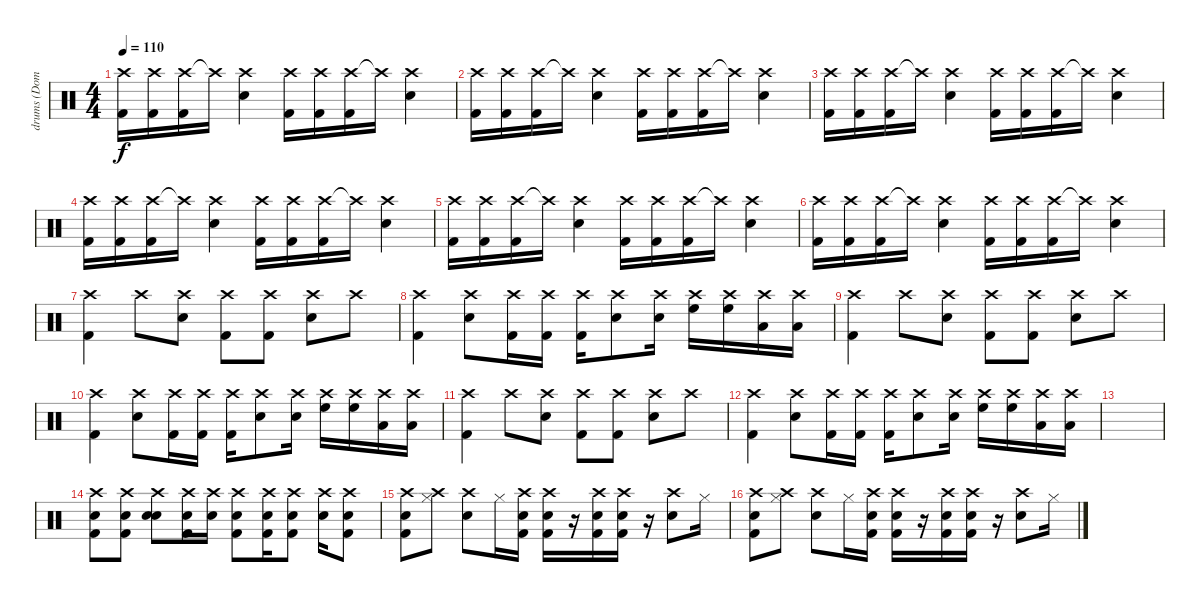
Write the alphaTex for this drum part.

\track ("drums (Dominic howard)" "drums (Dom") {instrument percussion}
\staff {score}
\articulation defaults
\ts (4 4)
\tempo 110
\clef neutral
\ks c
("Crash high (hit)" "Kick (hit) 2").16{dy f} ("Crash high (hit)" "Kick (hit) 2").16 ("Crash high (hit)" "Kick (hit) 2").16 "Crash high (hit)"{t}.16 ("Crash high (hit)" "Electric Snare (hit)").4 ("Crash high (hit)" "Kick (hit) 2").16 ("Crash high (hit)" "Kick (hit) 2").16 ("Crash high (hit)" "Kick (hit) 2").16 "Crash high (hit)"{t}.16 ("Crash high (hit)" "Electric Snare (hit)").4 |
("Crash high (hit)" "Kick (hit) 2").16 ("Crash high (hit)" "Kick (hit) 2").16 ("Crash high (hit)" "Kick (hit) 2").16 "Crash high (hit)"{t}.16 ("Crash high (hit)" "Electric Snare (hit)").4 ("Crash high (hit)" "Kick (hit) 2").16 ("Crash high (hit)" "Kick (hit) 2").16 ("Crash high (hit)" "Kick (hit) 2").16 "Crash high (hit)"{t}.16 ("Crash high (hit)" "Electric Snare (hit)").4 |
("Crash high (hit)" "Kick (hit) 2").16 ("Crash high (hit)" "Kick (hit) 2").16 ("Crash high (hit)" "Kick (hit) 2").16 "Crash high (hit)"{t}.16 ("Crash high (hit)" "Electric Snare (hit)").4 ("Crash high (hit)" "Kick (hit) 2").16 ("Crash high (hit)" "Kick (hit) 2").16 ("Crash high (hit)" "Kick (hit) 2").16 "Crash high (hit)"{t}.16 ("Crash high (hit)" "Electric Snare (hit)").4 |
("Crash high (hit)" "Kick (hit) 2").16 ("Crash high (hit)" "Kick (hit) 2").16 ("Crash high (hit)" "Kick (hit) 2").16 "Crash high (hit)"{t}.16 ("Crash high (hit)" "Electric Snare (hit)").4 ("Crash high (hit)" "Kick (hit) 2").16 ("Crash high (hit)" "Kick (hit) 2").16 ("Crash high (hit)" "Kick (hit) 2").16 "Crash high (hit)"{t}.16 ("Crash high (hit)" "Electric Snare (hit)").4 |
("Crash high (hit)" "Kick (hit) 2").16 ("Crash high (hit)" "Kick (hit) 2").16 ("Crash high (hit)" "Kick (hit) 2").16 "Crash high (hit)"{t}.16 ("Crash high (hit)" "Electric Snare (hit)").4 ("Crash high (hit)" "Kick (hit) 2").16 ("Crash high (hit)" "Kick (hit) 2").16 ("Crash high (hit)" "Kick (hit) 2").16 "Crash high (hit)"{t}.16 ("Crash high (hit)" "Electric Snare (hit)").4 |
("Crash high (hit)" "Kick (hit) 2").16 ("Crash high (hit)" "Kick (hit) 2").16 ("Crash high (hit)" "Kick (hit) 2").16 "Crash high (hit)"{t}.16 ("Crash high (hit)" "Electric Snare (hit)").4 ("Crash high (hit)" "Kick (hit) 2").16 ("Crash high (hit)" "Kick (hit) 2").16 ("Crash high (hit)" "Kick (hit) 2").16 "Crash high (hit)"{t}.16 ("Crash high (hit)" "Electric Snare (hit)").4 |
("Crash high (hit)" "Kick (hit) 2").4 "Crash high (hit)".8 ("Crash high (hit)" "Snare (hit) 2").8 ("Crash high (hit)" "Kick (hit) 2").8 ("Crash high (hit)" "Kick (hit) 2").8 ("Crash high (hit)" "Snare (hit) 2").8 "Crash high (hit)".8 |
("Crash high (hit)" "Kick (hit) 2").4 ("Crash high (hit)" "Snare (hit) 2").8 ("Crash high (hit)" "Kick (hit) 2").16 ("Crash high (hit)" "Kick (hit) 2").16 ("Crash high (hit)" "Kick (hit) 2").16 ("Crash high (hit)" "Snare (hit) 2").8 ("Crash high (hit)" "Snare (hit) 2").16 ("Crash high (hit)" "High Floor Tom (hit)").16 ("Crash high (hit)" "High Floor Tom (hit)").16 ("Crash high (hit)" "Low Tom (hit)").16 ("Crash high (hit)" "Low Tom (hit)").16 |
("Crash high (hit)" "Kick (hit) 2").4 "Crash high (hit)".8 ("Crash high (hit)" "Snare (hit) 2").8 ("Crash high (hit)" "Kick (hit) 2").8 ("Crash high (hit)" "Kick (hit) 2").8 ("Crash high (hit)" "Snare (hit) 2").8 "Crash high (hit)".8 |
("Crash high (hit)" "Kick (hit) 2").4 ("Crash high (hit)" "Snare (hit) 2").8 ("Crash high (hit)" "Kick (hit) 2").16 ("Crash high (hit)" "Kick (hit) 2").16 ("Crash high (hit)" "Kick (hit) 2").16 ("Crash high (hit)" "Snare (hit) 2").8 ("Crash high (hit)" "Snare (hit) 2").16 ("Crash high (hit)" "High Floor Tom (hit)").16 ("Crash high (hit)" "High Floor Tom (hit)").16 ("Crash high (hit)" "Low Tom (hit)").16 ("Crash high (hit)" "Low Tom (hit)").16 |
("Crash high (hit)" "Kick (hit) 2").4 "Crash high (hit)".8 ("Crash high (hit)" "Snare (hit) 2").8 ("Crash high (hit)" "Kick (hit) 2").8 ("Crash high (hit)" "Kick (hit) 2").8 ("Crash high (hit)" "Snare (hit) 2").8 "Crash high (hit)".8 |
("Crash high (hit)" "Kick (hit) 2").4 ("Crash high (hit)" "Snare (hit) 2").8 ("Crash high (hit)" "Kick (hit) 2").16 ("Crash high (hit)" "Kick (hit) 2").16 ("Crash high (hit)" "Kick (hit) 2").16 ("Crash high (hit)" "Snare (hit) 2").8 ("Crash high (hit)" "Snare (hit) 2").16 ("Crash high (hit)" "High Floor Tom (hit)").16 ("Crash high (hit)" "High Floor Tom (hit)").16 ("Crash high (hit)" "Low Tom (hit)").16 ("Crash high (hit)" "Low Tom (hit)").16 |
|
("Crash high (hit)" "Kick (hit) 2" "Snare (hit) 2").8 ("Crash high (hit)" "Kick (hit) 2" "Snare (hit) 2").8 ("Crash high (hit)" "Electric Snare (hit)" "Electric Snare (hit)").8 ("Crash high (hit)" "Kick (hit) 2" "Snare (hit) 2").16 ("Crash high (hit)" "Electric Snare (hit)").16 ("Crash high (hit)" "Kick (hit) 2" "Snare (hit) 2").8 ("Crash high (hit)" "Kick (hit) 2" "Snare (hit) 2").16 ("Crash high (hit)" "Kick (hit) 2" "Snare (hit) 2").8 ("Crash high (hit)" "Electric Snare (hit)").16 ("Crash high (hit)" "Kick (hit) 2" "Snare (hit) 2").8 |
("Crash high (hit)" "Kick (hit) 2" "Snare (hit) 2").8 ("Crash high (hit)" "Hi-Hat (closed)").8 ("Crash high (hit)" "Electric Snare (hit)").8 "Hi-Hat (closed)".16 ("Crash high (hit)" "Kick (hit) 2" "Snare (hit) 2").16 ("Crash high (hit)" "Kick (hit) 2" "Snare (hit) 2").16 r.16 ("Crash high (hit)" "Kick (hit) 2" "Snare (hit) 2").16 ("Crash high (hit)" "Kick (hit) 2" "Snare (hit) 2").16 r.16 ("Crash high (hit)" "Electric Snare (hit)").8 "Hi-Hat (closed)".16 |
("Crash high (hit)" "Kick (hit) 2" "Snare (hit) 2").8 ("Crash high (hit)" "Hi-Hat (closed)").8 ("Crash high (hit)" "Electric Snare (hit)").8 "Hi-Hat (closed)".16 ("Crash high (hit)" "Kick (hit) 2" "Snare (hit) 2").16 ("Crash high (hit)" "Kick (hit) 2" "Snare (hit) 2").16 r.16 ("Crash high (hit)" "Kick (hit) 2" "Snare (hit) 2").16 ("Crash high (hit)" "Kick (hit) 2" "Snare (hit) 2").16 r.16 ("Crash high (hit)" "Electric Snare (hit)").8 "Hi-Hat (closed)".16
